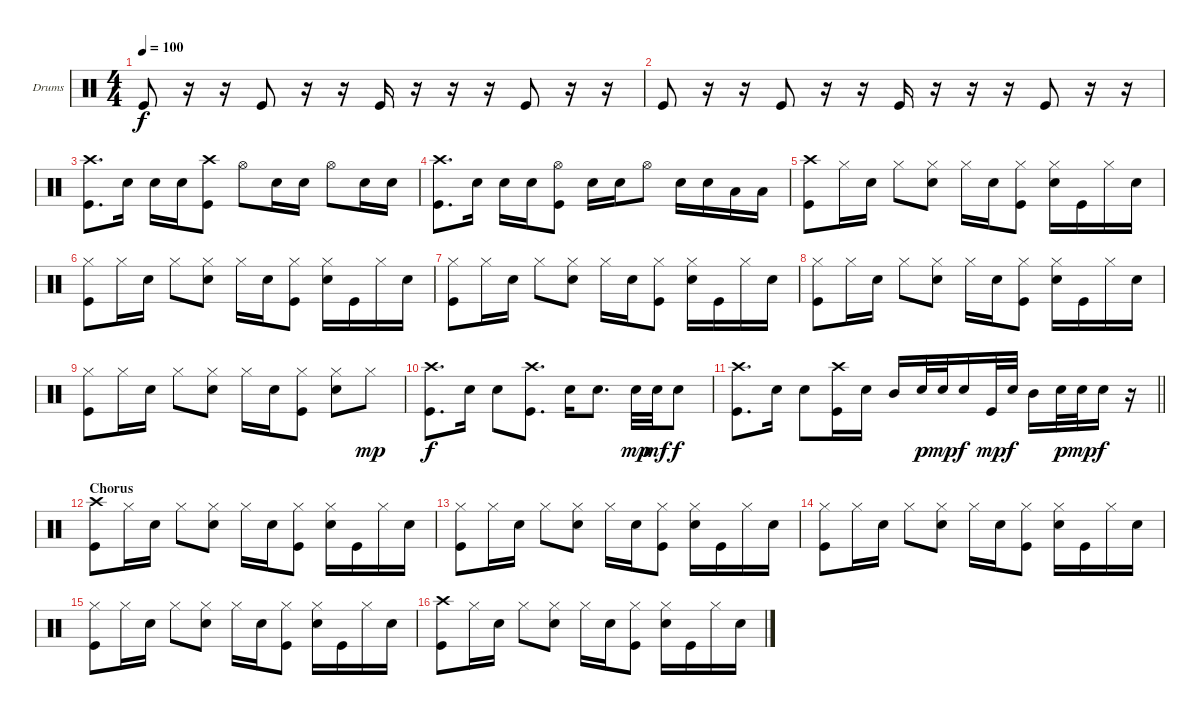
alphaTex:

\bracketExtendMode groupsimilarinstruments
\firstSystemTrackNameOrientation horizontal
\otherSystemsTrackNameOrientation horizontal
\track ("Fabrizio" "Drums") {instrument percussion}
\staff {score}
\articulation defaults
\ts (4 4)
\tempo 100
\clef neutral
\ks c "Kick (hit)".8{dy f}
r.16 r.16 "Kick (hit)".8 r.16 r.16 "Kick (hit)".16 r.16 r.16 r.16 "Kick (hit)".8 r.16 r.16 |
"Kick (hit)".8 r.16 r.16 "Kick (hit)".8 r.16 r.16 "Kick (hit)".16 r.16 r.16 r.16 "Kick (hit)".8 r.16 r.16 |
("Crash high (hit)" "Kick (hit)").8{d} "Snare (hit) 2".16 "Snare (hit) 2".16 "Snare (hit) 2".16 ("Crash high (hit)" "Kick (hit)").8 "Hi-Hat (open)".8 "Snare (hit) 2".16 "Snare (hit) 2".16 "Hi-Hat (open)".8 "Snare (hit) 2".16 "Snare (hit) 2".16 |
("Crash high (hit)" "Kick (hit)").8{d} "Snare (hit) 2".16 "Snare (hit) 2".16 "Snare (hit) 2".16 ("Hi-Hat (open)" "Kick (hit)").8 "Snare (hit) 2".16 "Snare (hit) 2".16 "Hi-Hat (open)".8 "Snare (hit) 2".16 "Snare (hit) 2".16 "Low Tom (hit)".16 "Low Tom (hit)".16 |
("Crash high (hit)" "Kick (hit)").8 "Hi-Hat (closed)".16 "Snare (hit) 2".16 "Hi-Hat (closed)".8 ("Hi-Hat (closed)" "Snare (hit) 2").8 "Hi-Hat (closed)".16 "Snare (hit) 2".16 ("Hi-Hat (closed)" "Kick (hit)").8 ("Hi-Hat (closed)" "Snare (hit) 2").16 "Kick (hit)".16 "Hi-Hat (closed)".16 "Snare (hit) 2".16 |
("Hi-Hat (closed)" "Kick (hit)").8 "Hi-Hat (closed)".16 "Snare (hit) 2".16 "Hi-Hat (closed)".8 ("Hi-Hat (closed)" "Snare (hit) 2").8 "Hi-Hat (closed)".16 "Snare (hit) 2".16 ("Hi-Hat (closed)" "Kick (hit)").8 ("Hi-Hat (closed)" "Snare (hit) 2").16 "Kick (hit)".16 "Hi-Hat (closed)".16 "Snare (hit) 2".16 |
("Hi-Hat (closed)" "Kick (hit)").8 "Hi-Hat (closed)".16 "Snare (hit) 2".16 "Hi-Hat (closed)".8 ("Hi-Hat (closed)" "Snare (hit) 2").8 "Hi-Hat (closed)".16 "Snare (hit) 2".16 ("Hi-Hat (closed)" "Kick (hit)").8 ("Hi-Hat (closed)" "Snare (hit) 2").16 "Kick (hit)".16 "Hi-Hat (closed)".16 "Snare (hit) 2".16 |
("Hi-Hat (closed)" "Kick (hit)").8 "Hi-Hat (closed)".16 "Snare (hit) 2".16 "Hi-Hat (closed)".8 ("Hi-Hat (closed)" "Snare (hit) 2").8 "Hi-Hat (closed)".16 "Snare (hit) 2".16 ("Hi-Hat (closed)" "Kick (hit)").8 ("Hi-Hat (closed)" "Snare (hit) 2").16 "Kick (hit)".16 "Hi-Hat (closed)".16 "Snare (hit) 2".16 |
("Hi-Hat (closed)" "Kick (hit)").8 "Hi-Hat (closed)".16 "Snare (hit) 2".16 "Hi-Hat (closed)".8 ("Hi-Hat (closed)" "Snare (hit) 2").8 "Hi-Hat (closed)".16 "Snare (hit) 2".16 ("Hi-Hat (closed)" "Kick (hit)").8 ("Hi-Hat (closed)" "Snare (hit) 2").8 "Hi-Hat (closed)".8{dy mp} |
("Crash high (hit)" "Kick (hit)").8{d dy f} "Snare (hit) 2".16 "Snare (hit) 2".8 ("Crash high (hit)" "Kick (hit)").8{d} "Snare (hit) 2".16 "Snare (hit) 2".8{d} "Snare (hit) 2".32{dy mp} "Snare (hit) 2".32{dy mf} "Snare (hit) 2".8{dy f} |
\barLineRight lightlight
("Crash high (hit)" "Kick (hit)").8{d} "Snare (hit) 2".16 "Snare (hit) 2".8 ("Crash high (hit)" "Kick (hit)").16 "Snare (hit) 2".16 "Mid Tom (hit)".16 "Snare (hit) 2".32{dy p} "Snare (hit) 2".32{dy mp} "Snare (hit) 2".16{dy f} "Kick (hit)".32{dy mp} "Snare (hit) 2".32{dy f} "Mid Tom (hit)".16 "Snare (hit) 2".32{dy p} "Snare (hit) 2".32{dy mp} "Snare (hit) 2".16{dy f} r.16 |
\section ("" "Chorus")
("Crash high (hit)" "Kick (hit)").8 "Hi-Hat (closed)".16 "Snare (hit) 2".16 "Hi-Hat (closed)".8 ("Hi-Hat (closed)" "Snare (hit) 2").8 "Hi-Hat (closed)".16 "Snare (hit) 2".16 ("Hi-Hat (closed)" "Kick (hit)").8 ("Hi-Hat (closed)" "Snare (hit) 2").16 "Kick (hit)".16 "Hi-Hat (closed)".16 "Snare (hit) 2".16 |
("Hi-Hat (closed)" "Kick (hit)").8 "Hi-Hat (closed)".16 "Snare (hit) 2".16 "Hi-Hat (closed)".8 ("Hi-Hat (closed)" "Snare (hit) 2").8 "Hi-Hat (closed)".16 "Snare (hit) 2".16 ("Hi-Hat (closed)" "Kick (hit)").8 ("Hi-Hat (closed)" "Snare (hit) 2").16 "Kick (hit)".16 "Hi-Hat (closed)".16 "Snare (hit) 2".16 |
("Hi-Hat (closed)" "Kick (hit)").8 "Hi-Hat (closed)".16 "Snare (hit) 2".16 "Hi-Hat (closed)".8 ("Hi-Hat (closed)" "Snare (hit) 2").8 "Hi-Hat (closed)".16 "Snare (hit) 2".16 ("Hi-Hat (closed)" "Kick (hit)").8 ("Hi-Hat (closed)" "Snare (hit) 2").16 "Kick (hit)".16 "Hi-Hat (closed)".16 "Snare (hit) 2".16 |
("Hi-Hat (closed)" "Kick (hit)").8 "Hi-Hat (closed)".16 "Snare (hit) 2".16 "Hi-Hat (closed)".8 ("Hi-Hat (closed)" "Snare (hit) 2").8 "Hi-Hat (closed)".16 "Snare (hit) 2".16 ("Hi-Hat (closed)" "Kick (hit)").8 ("Hi-Hat (closed)" "Snare (hit) 2").16 "Kick (hit)".16 "Hi-Hat (closed)".16 "Snare (hit) 2".16 |
("Crash high (hit)" "Kick (hit)").8 "Hi-Hat (closed)".16 "Snare (hit) 2".16 "Hi-Hat (closed)".8 ("Hi-Hat (closed)" "Snare (hit) 2").8 "Hi-Hat (closed)".16 "Snare (hit) 2".16 ("Hi-Hat (closed)" "Kick (hit)").8 ("Hi-Hat (closed)" "Snare (hit) 2").16 "Kick (hit)".16 "Hi-Hat (closed)".16 "Snare (hit) 2".16
